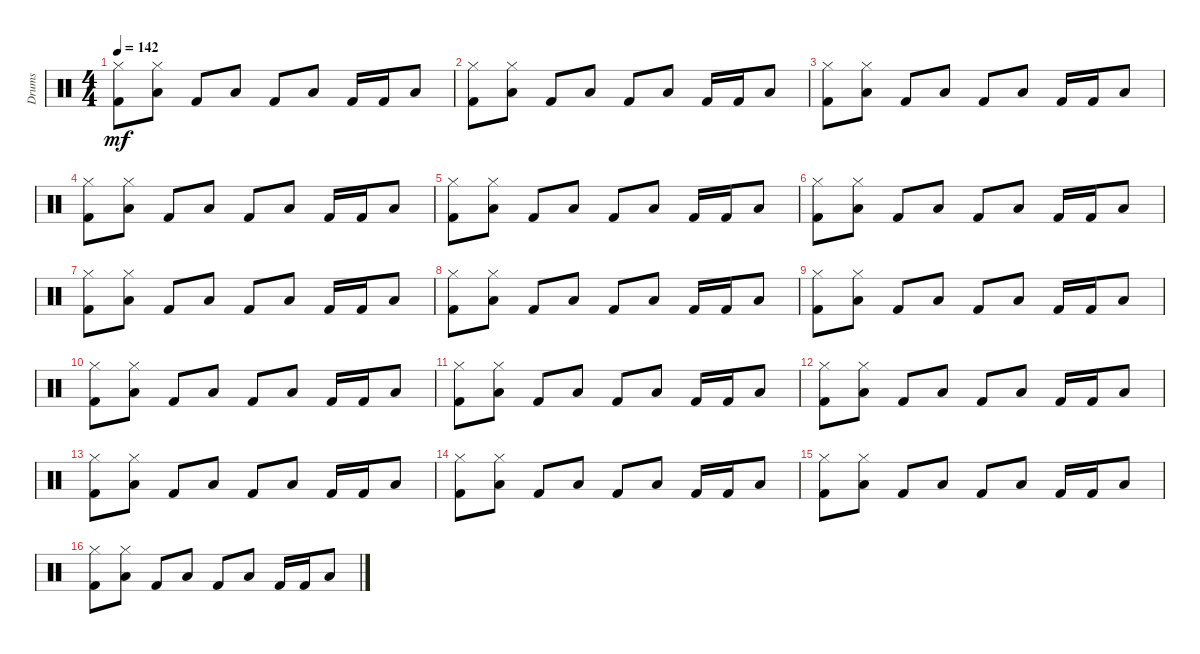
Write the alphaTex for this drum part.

\track ("Drums" "Drums") {instrument percussion}
\staff {score}
\articulation defaults
\ts (4 4)
\tempo 142
\clef neutral
\ks c
("Hi-Hat (closed)" "Kick (hit) 2").8{dy mf} ("Hi-Hat (closed)" "Low Tom (hit)").8 "Kick (hit) 2".8 "Low Tom (hit)".8 "Kick (hit) 2".8 "Low Tom (hit)".8 "Kick (hit) 2".16 "Kick (hit) 2".16 "Low Tom (hit)".8 |
("Hi-Hat (closed)" "Kick (hit) 2").8 ("Hi-Hat (closed)" "Low Tom (hit)").8 "Kick (hit) 2".8 "Low Tom (hit)".8 "Kick (hit) 2".8 "Low Tom (hit)".8 "Kick (hit) 2".16 "Kick (hit) 2".16 "Low Tom (hit)".8 |
("Hi-Hat (closed)" "Kick (hit) 2").8 ("Hi-Hat (closed)" "Low Tom (hit)").8 "Kick (hit) 2".8 "Low Tom (hit)".8 "Kick (hit) 2".8 "Low Tom (hit)".8 "Kick (hit) 2".16 "Kick (hit) 2".16 "Low Tom (hit)".8 |
("Hi-Hat (closed)" "Kick (hit) 2").8 ("Hi-Hat (closed)" "Low Tom (hit)").8 "Kick (hit) 2".8 "Low Tom (hit)".8 "Kick (hit) 2".8 "Low Tom (hit)".8 "Kick (hit) 2".16 "Kick (hit) 2".16 "Low Tom (hit)".8 |
("Hi-Hat (closed)" "Kick (hit) 2").8 ("Hi-Hat (closed)" "Low Tom (hit)").8 "Kick (hit) 2".8 "Low Tom (hit)".8 "Kick (hit) 2".8 "Low Tom (hit)".8 "Kick (hit) 2".16 "Kick (hit) 2".16 "Low Tom (hit)".8 |
("Hi-Hat (closed)" "Kick (hit) 2").8 ("Hi-Hat (closed)" "Low Tom (hit)").8 "Kick (hit) 2".8 "Low Tom (hit)".8 "Kick (hit) 2".8 "Low Tom (hit)".8 "Kick (hit) 2".16 "Kick (hit) 2".16 "Low Tom (hit)".8 |
("Hi-Hat (closed)" "Kick (hit) 2").8 ("Hi-Hat (closed)" "Low Tom (hit)").8 "Kick (hit) 2".8 "Low Tom (hit)".8 "Kick (hit) 2".8 "Low Tom (hit)".8 "Kick (hit) 2".16 "Kick (hit) 2".16 "Low Tom (hit)".8 |
("Hi-Hat (closed)" "Kick (hit) 2").8 ("Hi-Hat (closed)" "Low Tom (hit)").8 "Kick (hit) 2".8 "Low Tom (hit)".8 "Kick (hit) 2".8 "Low Tom (hit)".8 "Kick (hit) 2".16 "Kick (hit) 2".16 "Low Tom (hit)".8 |
("Hi-Hat (closed)" "Kick (hit) 2").8 ("Hi-Hat (closed)" "Low Tom (hit)").8 "Kick (hit) 2".8 "Low Tom (hit)".8 "Kick (hit) 2".8 "Low Tom (hit)".8 "Kick (hit) 2".16 "Kick (hit) 2".16 "Low Tom (hit)".8 |
("Hi-Hat (closed)" "Kick (hit) 2").8 ("Hi-Hat (closed)" "Low Tom (hit)").8 "Kick (hit) 2".8 "Low Tom (hit)".8 "Kick (hit) 2".8 "Low Tom (hit)".8 "Kick (hit) 2".16 "Kick (hit) 2".16 "Low Tom (hit)".8 |
("Hi-Hat (closed)" "Kick (hit) 2").8 ("Hi-Hat (closed)" "Low Tom (hit)").8 "Kick (hit) 2".8 "Low Tom (hit)".8 "Kick (hit) 2".8 "Low Tom (hit)".8 "Kick (hit) 2".16 "Kick (hit) 2".16 "Low Tom (hit)".8 |
("Hi-Hat (closed)" "Kick (hit) 2").8 ("Hi-Hat (closed)" "Low Tom (hit)").8 "Kick (hit) 2".8 "Low Tom (hit)".8 "Kick (hit) 2".8 "Low Tom (hit)".8 "Kick (hit) 2".16 "Kick (hit) 2".16 "Low Tom (hit)".8 |
("Hi-Hat (closed)" "Kick (hit) 2").8 ("Hi-Hat (closed)" "Low Tom (hit)").8 "Kick (hit) 2".8 "Low Tom (hit)".8 "Kick (hit) 2".8 "Low Tom (hit)".8 "Kick (hit) 2".16 "Kick (hit) 2".16 "Low Tom (hit)".8 |
("Hi-Hat (closed)" "Kick (hit) 2").8 ("Hi-Hat (closed)" "Low Tom (hit)").8 "Kick (hit) 2".8 "Low Tom (hit)".8 "Kick (hit) 2".8 "Low Tom (hit)".8 "Kick (hit) 2".16 "Kick (hit) 2".16 "Low Tom (hit)".8 |
("Hi-Hat (closed)" "Kick (hit) 2").8 ("Hi-Hat (closed)" "Low Tom (hit)").8 "Kick (hit) 2".8 "Low Tom (hit)".8 "Kick (hit) 2".8 "Low Tom (hit)".8 "Kick (hit) 2".16 "Kick (hit) 2".16 "Low Tom (hit)".8 |
("Hi-Hat (closed)" "Kick (hit) 2").8 ("Hi-Hat (closed)" "Low Tom (hit)").8 "Kick (hit) 2".8 "Low Tom (hit)".8 "Kick (hit) 2".8 "Low Tom (hit)".8 "Kick (hit) 2".16 "Kick (hit) 2".16 "Low Tom (hit)".8
